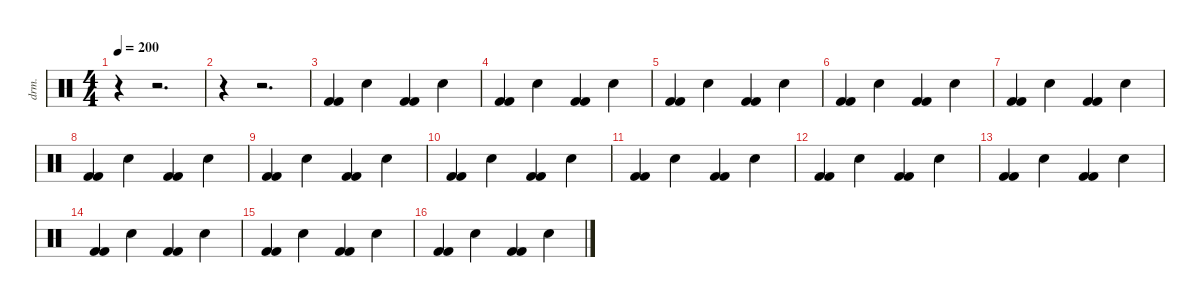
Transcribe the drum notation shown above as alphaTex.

\defaultSystemsLayout 4
\hideDynamics
\bracketExtendMode nobrackets
\track ("Perkusja" "drm.") {instrument percussion}
\staff {score}
\articulation defaults
\ts (4 4)
\tempo 200
\clef neutral
\ks c
r.4{dy f} r.2{d} |
r.4 r.2{d} |
("Kick (hit) 2" "Kick (hit) 2").4 "Snare (hit) 2".4 ("Kick (hit) 2" "Kick (hit) 2").4 "Snare (hit) 2".4 |
("Kick (hit) 2" "Kick (hit) 2").4 "Snare (hit) 2".4 ("Kick (hit) 2" "Kick (hit) 2").4 "Snare (hit) 2".4 |
("Kick (hit) 2" "Kick (hit) 2").4 "Snare (hit) 2".4 ("Kick (hit) 2" "Kick (hit) 2").4 "Snare (hit) 2".4 |
("Kick (hit) 2" "Kick (hit) 2").4 "Snare (hit) 2".4 ("Kick (hit) 2" "Kick (hit) 2").4 "Snare (hit) 2".4 |
("Kick (hit) 2" "Kick (hit) 2").4 "Snare (hit) 2".4 ("Kick (hit) 2" "Kick (hit) 2").4 "Snare (hit) 2".4 |
("Kick (hit) 2" "Kick (hit) 2").4 "Snare (hit) 2".4 ("Kick (hit) 2" "Kick (hit) 2").4 "Snare (hit) 2".4 |
("Kick (hit) 2" "Kick (hit) 2").4 "Snare (hit) 2".4 ("Kick (hit) 2" "Kick (hit) 2").4 "Snare (hit) 2".4 |
("Kick (hit) 2" "Kick (hit) 2").4 "Snare (hit) 2".4 ("Kick (hit) 2" "Kick (hit) 2").4 "Snare (hit) 2".4 |
("Kick (hit) 2" "Kick (hit) 2").4 "Snare (hit) 2".4 ("Kick (hit) 2" "Kick (hit) 2").4 "Snare (hit) 2".4 |
("Kick (hit) 2" "Kick (hit) 2").4 "Snare (hit) 2".4 ("Kick (hit) 2" "Kick (hit) 2").4 "Snare (hit) 2".4 |
("Kick (hit) 2" "Kick (hit) 2").4 "Snare (hit) 2".4 ("Kick (hit) 2" "Kick (hit) 2").4 "Snare (hit) 2".4 |
("Kick (hit) 2" "Kick (hit) 2").4 "Snare (hit) 2".4 ("Kick (hit) 2" "Kick (hit) 2").4 "Snare (hit) 2".4 |
("Kick (hit) 2" "Kick (hit) 2").4 "Snare (hit) 2".4 ("Kick (hit) 2" "Kick (hit) 2").4 "Snare (hit) 2".4 |
("Kick (hit) 2" "Kick (hit) 2").4 "Snare (hit) 2".4 ("Kick (hit) 2" "Kick (hit) 2").4 "Snare (hit) 2".4
